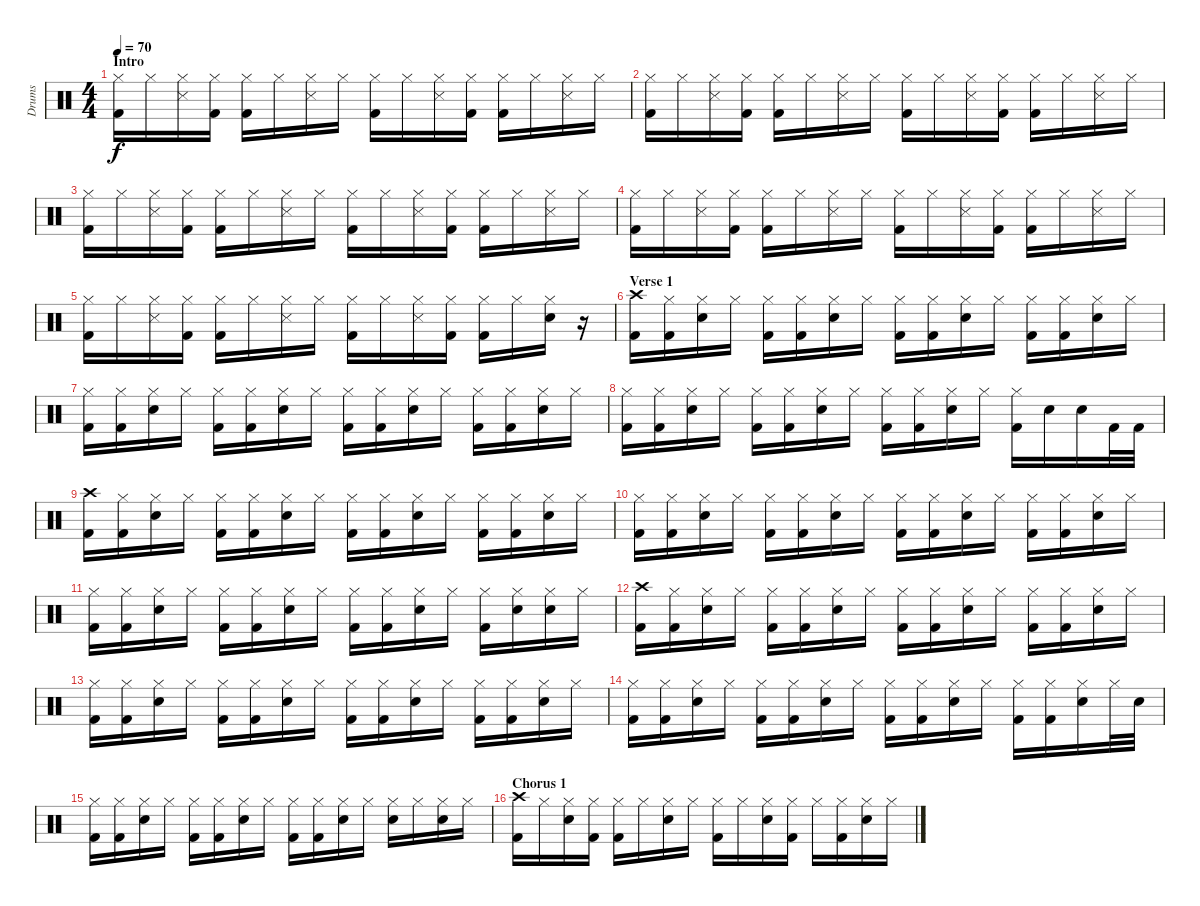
\track ("Drums" "Drums") {instrument percussion}
\staff {score}
\articulation defaults
\ts (4 4)
\section ("" "Intro")
\tempo 70
\clef neutral
\ks c
("Hi-Hat (closed)" "Kick (hit) 2").16{dy f} "Hi-Hat (closed)".16 ("Hi-Hat (closed)" "Snare (side stick) 3").16 ("Hi-Hat (closed)" "Kick (hit) 2").16 ("Hi-Hat (closed)" "Kick (hit) 2").16 "Hi-Hat (closed)".16 ("Hi-Hat (closed)" "Snare (side stick) 3").16 "Hi-Hat (closed)".16 ("Hi-Hat (closed)" "Kick (hit) 2").16 "Hi-Hat (closed)".16 ("Hi-Hat (closed)" "Snare (side stick) 3").16 ("Hi-Hat (closed)" "Kick (hit) 2").16 ("Hi-Hat (closed)" "Kick (hit) 2").16 "Hi-Hat (closed)".16 ("Hi-Hat (closed)" "Snare (side stick) 3").16 "Hi-Hat (closed)".16 |
("Hi-Hat (closed)" "Kick (hit) 2").16 "Hi-Hat (closed)".16 ("Hi-Hat (closed)" "Snare (side stick) 3").16 ("Hi-Hat (closed)" "Kick (hit) 2").16 ("Hi-Hat (closed)" "Kick (hit) 2").16 "Hi-Hat (closed)".16 ("Hi-Hat (closed)" "Snare (side stick) 3").16 "Hi-Hat (closed)".16 ("Hi-Hat (closed)" "Kick (hit) 2").16 "Hi-Hat (closed)".16 ("Hi-Hat (closed)" "Snare (side stick) 3").16 ("Hi-Hat (closed)" "Kick (hit) 2").16 ("Hi-Hat (closed)" "Kick (hit) 2").16 "Hi-Hat (closed)".16 ("Hi-Hat (closed)" "Snare (side stick) 3").16 "Hi-Hat (closed)".16 |
("Hi-Hat (closed)" "Kick (hit) 2").16 "Hi-Hat (closed)".16 ("Hi-Hat (closed)" "Snare (side stick) 3").16 ("Hi-Hat (closed)" "Kick (hit) 2").16 ("Hi-Hat (closed)" "Kick (hit) 2").16 "Hi-Hat (closed)".16 ("Hi-Hat (closed)" "Snare (side stick) 3").16 "Hi-Hat (closed)".16 ("Hi-Hat (closed)" "Kick (hit) 2").16 "Hi-Hat (closed)".16 ("Hi-Hat (closed)" "Snare (side stick) 3").16 ("Hi-Hat (closed)" "Kick (hit) 2").16 ("Hi-Hat (closed)" "Kick (hit) 2").16 "Hi-Hat (closed)".16 ("Hi-Hat (closed)" "Snare (side stick) 3").16 "Hi-Hat (closed)".16 |
("Hi-Hat (closed)" "Kick (hit) 2").16 "Hi-Hat (closed)".16 ("Hi-Hat (closed)" "Snare (side stick) 3").16 ("Hi-Hat (closed)" "Kick (hit) 2").16 ("Hi-Hat (closed)" "Kick (hit) 2").16 "Hi-Hat (closed)".16 ("Hi-Hat (closed)" "Snare (side stick) 3").16 "Hi-Hat (closed)".16 ("Hi-Hat (closed)" "Kick (hit) 2").16 "Hi-Hat (closed)".16 ("Hi-Hat (closed)" "Snare (side stick) 3").16 ("Hi-Hat (closed)" "Kick (hit) 2").16 ("Hi-Hat (closed)" "Kick (hit) 2").16 "Hi-Hat (closed)".16 ("Hi-Hat (closed)" "Snare (side stick) 3").16 "Hi-Hat (closed)".16 |
("Hi-Hat (closed)" "Kick (hit) 2").16 "Hi-Hat (closed)".16 ("Hi-Hat (closed)" "Snare (side stick) 3").16 ("Hi-Hat (closed)" "Kick (hit) 2").16 ("Hi-Hat (closed)" "Kick (hit) 2").16 "Hi-Hat (closed)".16 ("Hi-Hat (closed)" "Snare (side stick) 3").16 "Hi-Hat (closed)".16 ("Hi-Hat (closed)" "Kick (hit) 2").16 "Hi-Hat (closed)".16 ("Hi-Hat (closed)" "Snare (side stick) 3").16 ("Hi-Hat (closed)" "Kick (hit) 2").16 ("Hi-Hat (closed)" "Kick (hit) 2").16 "Hi-Hat (closed)".16 ("Hi-Hat (closed)" "Snare (hit) 2").16 r.16 |
\section ("" "Verse 1")
("Crash high (hit)" "Kick (hit) 2").16 ("Hi-Hat (closed)" "Kick (hit) 2").16 ("Hi-Hat (closed)" "Snare (hit) 2").16 "Hi-Hat (closed)".16 ("Hi-Hat (closed)" "Kick (hit) 2").16 ("Hi-Hat (closed)" "Kick (hit) 2").16 ("Hi-Hat (closed)" "Snare (hit) 2").16 "Hi-Hat (closed)".16 ("Hi-Hat (closed)" "Kick (hit) 2").16 ("Hi-Hat (closed)" "Kick (hit) 2").16 ("Hi-Hat (closed)" "Snare (hit) 2").16 "Hi-Hat (closed)".16 ("Hi-Hat (closed)" "Kick (hit) 2").16 ("Hi-Hat (closed)" "Kick (hit) 2").16 ("Hi-Hat (closed)" "Snare (hit) 2").16 "Hi-Hat (closed)".16 |
("Hi-Hat (closed)" "Kick (hit) 2").16 ("Hi-Hat (closed)" "Kick (hit) 2").16 ("Hi-Hat (closed)" "Snare (hit) 2").16 "Hi-Hat (closed)".16 ("Hi-Hat (closed)" "Kick (hit) 2").16 ("Hi-Hat (closed)" "Kick (hit) 2").16 ("Hi-Hat (closed)" "Snare (hit) 2").16 "Hi-Hat (closed)".16 ("Hi-Hat (closed)" "Kick (hit) 2").16 ("Hi-Hat (closed)" "Kick (hit) 2").16 ("Hi-Hat (closed)" "Snare (hit) 2").16 "Hi-Hat (closed)".16 ("Hi-Hat (closed)" "Kick (hit) 2").16 ("Hi-Hat (closed)" "Kick (hit) 2").16 ("Hi-Hat (closed)" "Snare (hit) 2").16 "Hi-Hat (closed)".16 |
("Hi-Hat (closed)" "Kick (hit) 2").16 ("Hi-Hat (closed)" "Kick (hit) 2").16 ("Hi-Hat (closed)" "Snare (hit) 2").16 "Hi-Hat (closed)".16 ("Hi-Hat (closed)" "Kick (hit) 2").16 ("Hi-Hat (closed)" "Kick (hit) 2").16 ("Hi-Hat (closed)" "Snare (hit) 2").16 "Hi-Hat (closed)".16 ("Hi-Hat (closed)" "Kick (hit) 2").16 ("Hi-Hat (closed)" "Kick (hit) 2").16 ("Hi-Hat (closed)" "Snare (hit) 2").16 "Hi-Hat (closed)".16 ("Hi-Hat (closed)" "Kick (hit) 2").16 "Snare (hit) 2".16 "Snare (hit) 2".16 "Kick (hit) 2".32 "Kick (hit) 2".32 |
("Crash high (hit)" "Kick (hit) 2").16 ("Hi-Hat (closed)" "Kick (hit) 2").16 ("Hi-Hat (closed)" "Snare (hit) 2").16 "Hi-Hat (closed)".16 ("Hi-Hat (closed)" "Kick (hit) 2").16 ("Hi-Hat (closed)" "Kick (hit) 2").16 ("Hi-Hat (closed)" "Snare (hit) 2").16 "Hi-Hat (closed)".16 ("Hi-Hat (closed)" "Kick (hit) 2").16 ("Hi-Hat (closed)" "Kick (hit) 2").16 ("Hi-Hat (closed)" "Snare (hit) 2").16 "Hi-Hat (closed)".16 ("Hi-Hat (closed)" "Kick (hit) 2").16 ("Hi-Hat (closed)" "Kick (hit) 2").16 ("Hi-Hat (closed)" "Snare (hit) 2").16 "Hi-Hat (closed)".16 |
("Hi-Hat (closed)" "Kick (hit) 2").16 ("Hi-Hat (closed)" "Kick (hit) 2").16 ("Hi-Hat (closed)" "Snare (hit) 2").16 "Hi-Hat (closed)".16 ("Hi-Hat (closed)" "Kick (hit) 2").16 ("Hi-Hat (closed)" "Kick (hit) 2").16 ("Hi-Hat (closed)" "Snare (hit) 2").16 "Hi-Hat (closed)".16 ("Hi-Hat (closed)" "Kick (hit) 2").16 ("Hi-Hat (closed)" "Kick (hit) 2").16 ("Hi-Hat (closed)" "Snare (hit) 2").16 "Hi-Hat (closed)".16 ("Hi-Hat (closed)" "Kick (hit) 2").16 ("Hi-Hat (closed)" "Kick (hit) 2").16 ("Hi-Hat (closed)" "Snare (hit) 2").16 "Hi-Hat (closed)".16 |
("Hi-Hat (closed)" "Kick (hit) 2").16 ("Hi-Hat (closed)" "Kick (hit) 2").16 ("Hi-Hat (closed)" "Snare (hit) 2").16 "Hi-Hat (closed)".16 ("Hi-Hat (closed)" "Kick (hit) 2").16 ("Hi-Hat (closed)" "Kick (hit) 2").16 ("Hi-Hat (closed)" "Snare (hit) 2").16 "Hi-Hat (closed)".16 ("Hi-Hat (closed)" "Kick (hit) 2").16 ("Hi-Hat (closed)" "Kick (hit) 2").16 ("Hi-Hat (closed)" "Snare (hit) 2").16 "Hi-Hat (closed)".16 ("Hi-Hat (closed)" "Kick (hit) 2").16 ("Hi-Hat (closed)" "Snare (hit) 2").16 ("Hi-Hat (closed)" "Snare (hit) 2").16 "Hi-Hat (closed)".16 |
("Crash high (hit)" "Kick (hit) 2").16 ("Hi-Hat (closed)" "Kick (hit) 2").16 ("Hi-Hat (closed)" "Snare (hit) 2").16 "Hi-Hat (closed)".16 ("Hi-Hat (closed)" "Kick (hit) 2").16 ("Hi-Hat (closed)" "Kick (hit) 2").16 ("Hi-Hat (closed)" "Snare (hit) 2").16 "Hi-Hat (closed)".16 ("Hi-Hat (closed)" "Kick (hit) 2").16 ("Hi-Hat (closed)" "Kick (hit) 2").16 ("Hi-Hat (closed)" "Snare (hit) 2").16 "Hi-Hat (closed)".16 ("Hi-Hat (closed)" "Kick (hit) 2").16 ("Hi-Hat (closed)" "Kick (hit) 2").16 ("Hi-Hat (closed)" "Snare (hit) 2").16 "Hi-Hat (closed)".16 |
("Hi-Hat (closed)" "Kick (hit) 2").16 ("Hi-Hat (closed)" "Kick (hit) 2").16 ("Hi-Hat (closed)" "Snare (hit) 2").16 "Hi-Hat (closed)".16 ("Hi-Hat (closed)" "Kick (hit) 2").16 ("Hi-Hat (closed)" "Kick (hit) 2").16 ("Hi-Hat (closed)" "Snare (hit) 2").16 "Hi-Hat (closed)".16 ("Hi-Hat (closed)" "Kick (hit) 2").16 ("Hi-Hat (closed)" "Kick (hit) 2").16 ("Hi-Hat (closed)" "Snare (hit) 2").16 "Hi-Hat (closed)".16 ("Hi-Hat (closed)" "Kick (hit) 2").16 ("Hi-Hat (closed)" "Kick (hit) 2").16 ("Hi-Hat (closed)" "Snare (hit) 2").16 "Hi-Hat (closed)".16 |
("Hi-Hat (closed)" "Kick (hit) 2").16 ("Hi-Hat (closed)" "Kick (hit) 2").16 ("Hi-Hat (closed)" "Snare (hit) 2").16 "Hi-Hat (closed)".16 ("Hi-Hat (closed)" "Kick (hit) 2").16 ("Hi-Hat (closed)" "Kick (hit) 2").16 ("Hi-Hat (closed)" "Snare (hit) 2").16 "Hi-Hat (closed)".16 ("Hi-Hat (closed)" "Kick (hit) 2").16 ("Hi-Hat (closed)" "Kick (hit) 2").16 ("Hi-Hat (closed)" "Snare (hit) 2").16 "Hi-Hat (closed)".16 ("Hi-Hat (closed)" "Kick (hit) 2").16 ("Hi-Hat (closed)" "Kick (hit) 2").16 ("Hi-Hat (closed)" "Snare (hit) 2").16 "Hi-Hat (closed)".32 "Snare (hit) 2".32 |
("Hi-Hat (closed)" "Kick (hit) 2").16 ("Hi-Hat (closed)" "Kick (hit) 2").16 ("Hi-Hat (closed)" "Snare (hit) 2").16 "Hi-Hat (closed)".16 ("Hi-Hat (closed)" "Kick (hit) 2").16 ("Hi-Hat (closed)" "Kick (hit) 2").16 ("Hi-Hat (closed)" "Snare (hit) 2").16 "Hi-Hat (closed)".16 ("Hi-Hat (closed)" "Kick (hit) 2").16 ("Hi-Hat (closed)" "Kick (hit) 2").16 ("Hi-Hat (closed)" "Snare (hit) 2").16 "Hi-Hat (closed)".16 ("Hi-Hat (closed)" "Snare (hit) 2").16 "Hi-Hat (closed)".16 ("Hi-Hat (closed)" "Snare (hit) 2").16 "Hi-Hat (closed)".16 |
\section ("" "Chorus 1")
("Crash high (hit)" "Kick (hit) 2").16 "Hi-Hat (closed)".16 ("Hi-Hat (closed)" "Snare (hit) 2").16 ("Hi-Hat (closed)" "Kick (hit) 2").16 ("Hi-Hat (closed)" "Kick (hit) 2").16 "Hi-Hat (closed)".16 ("Hi-Hat (closed)" "Snare (hit) 2").16 "Hi-Hat (closed)".16 ("Hi-Hat (closed)" "Kick (hit) 2").16 "Hi-Hat (closed)".16 ("Hi-Hat (closed)" "Snare (hit) 2").16 ("Hi-Hat (closed)" "Kick (hit) 2").16 "Hi-Hat (closed)".16 ("Hi-Hat (closed)" "Kick (hit) 2").16 ("Hi-Hat (closed)" "Snare (hit) 2").16 "Hi-Hat (closed)".16
